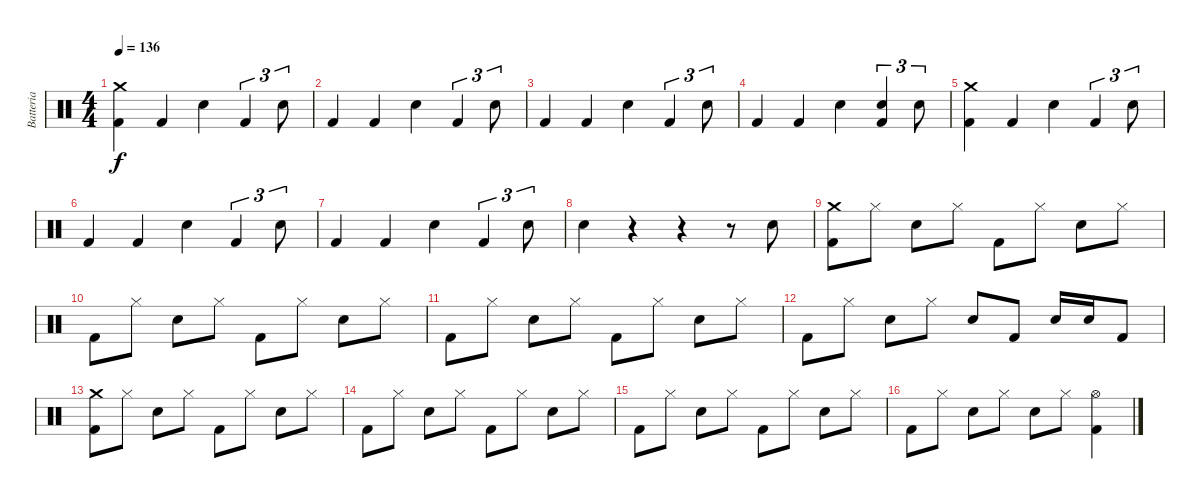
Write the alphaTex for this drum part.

\track ("Batteria" "Batteria") {instrument percussion}
\staff {score}
\articulation defaults
\ts (4 4)
\tempo 136
\clef neutral
\ks c
("Crash medium (hit)" "Kick (hit) 2").4{dy f} "Kick (hit) 2".4 "Electric Snare (hit)".4 "Kick (hit) 2".4{tu (3 2)} "Electric Snare (hit)".8{tu (3 2)} |
"Kick (hit) 2".4 "Kick (hit) 2".4 "Electric Snare (hit)".4 "Kick (hit) 2".4{tu (3 2)} "Electric Snare (hit)".8{tu (3 2)} |
"Kick (hit) 2".4 "Kick (hit) 2".4 "Electric Snare (hit)".4 "Kick (hit) 2".4{tu (3 2)} "Electric Snare (hit)".8{tu (3 2)} |
"Kick (hit) 2".4 "Kick (hit) 2".4 "Electric Snare (hit)".4 ("Electric Snare (hit)" "Kick (hit) 2").4{tu (3 2)} "Electric Snare (hit)".8{tu (3 2)} |
("Crash medium (hit)" "Kick (hit) 2").4 "Kick (hit) 2".4 "Electric Snare (hit)".4 "Kick (hit) 2".4{tu (3 2)} "Electric Snare (hit)".8{tu (3 2)} |
"Kick (hit) 2".4 "Kick (hit) 2".4 "Electric Snare (hit)".4 "Kick (hit) 2".4{tu (3 2)} "Electric Snare (hit)".8{tu (3 2)} |
"Kick (hit) 2".4 "Kick (hit) 2".4 "Electric Snare (hit)".4 "Kick (hit) 2".4{tu (3 2)} "Electric Snare (hit)".8{tu (3 2)} |
"Electric Snare (hit)".4 r.4 r.4 r.8 "Electric Snare (hit)".8 |
("Crash medium (hit)" "Kick (hit) 2").8 "Hi-Hat (closed)".8 "Electric Snare (hit)".8 "Hi-Hat (closed)".8 "Kick (hit) 2".8 "Hi-Hat (closed)".8 "Electric Snare (hit)".8 "Hi-Hat (closed)".8 |
"Kick (hit) 2".8 "Hi-Hat (closed)".8 "Electric Snare (hit)".8 "Hi-Hat (closed)".8 "Kick (hit) 2".8 "Hi-Hat (closed)".8 "Electric Snare (hit)".8 "Hi-Hat (closed)".8 |
"Kick (hit) 2".8 "Hi-Hat (closed)".8 "Electric Snare (hit)".8 "Hi-Hat (closed)".8 "Kick (hit) 2".8 "Hi-Hat (closed)".8 "Electric Snare (hit)".8 "Hi-Hat (closed)".8 |
"Kick (hit) 2".8 "Hi-Hat (closed)".8 "Electric Snare (hit)".8 "Hi-Hat (closed)".8 "Electric Snare (hit)".8 "Kick (hit) 2".8 "Electric Snare (hit)".16 "Electric Snare (hit)".16 "Kick (hit) 2".8 |
("Crash medium (hit)" "Kick (hit) 2").8 "Hi-Hat (closed)".8 "Electric Snare (hit)".8 "Hi-Hat (closed)".8 "Kick (hit) 2".8 "Hi-Hat (closed)".8 "Electric Snare (hit)".8 "Hi-Hat (closed)".8 |
"Kick (hit) 2".8 "Hi-Hat (closed)".8 "Electric Snare (hit)".8 "Hi-Hat (closed)".8 "Kick (hit) 2".8 "Hi-Hat (closed)".8 "Electric Snare (hit)".8 "Hi-Hat (closed)".8 |
"Kick (hit) 2".8 "Hi-Hat (closed)".8 "Electric Snare (hit)".8 "Hi-Hat (closed)".8 "Kick (hit) 2".8 "Hi-Hat (closed)".8 "Electric Snare (hit)".8 "Hi-Hat (closed)".8 |
"Kick (hit) 2".8 "Hi-Hat (closed)".8 "Electric Snare (hit)".8 "Hi-Hat (closed)".8 "Electric Snare (hit)".8 "Hi-Hat (closed)".8 ("Hi-Hat (open)" "Kick (hit) 2").4
